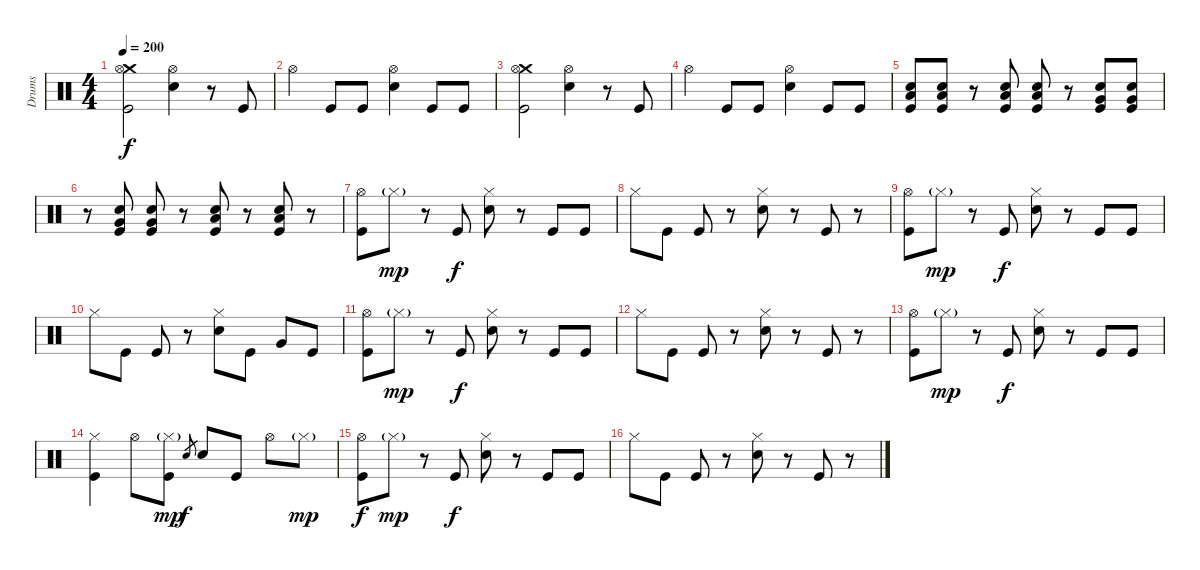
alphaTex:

\track ("Drums" "Drums") {instrument percussion}
\staff {score}
\articulation defaults
\ts (4 4)
\tempo 200
\clef neutral
\ks c
("Crash medium (hit)" "Hi-Hat (open)" "Kick (hit)").2{dy f} ("Hi-Hat (open)" "Electric Snare (hit)").4 r.8 "Kick (hit)".8 |
"Hi-Hat (open)".4 "Kick (hit)".8 "Kick (hit)".8 ("Hi-Hat (open)" "Electric Snare (hit)").4 "Kick (hit)".8 "Kick (hit)".8 |
("Crash medium (hit)" "Hi-Hat (open)" "Kick (hit)").2 ("Hi-Hat (open)" "Electric Snare (hit)").4 r.8 "Kick (hit)".8 |
"Hi-Hat (open)".4 "Kick (hit)".8 "Kick (hit)".8 ("Hi-Hat (open)" "Electric Snare (hit)").4 "Kick (hit)".8 "Kick (hit)".8 |
("Low Tom (hit)" "Electric Snare (hit)" "Kick (hit)").8 ("Low Tom (hit)" "Electric Snare (hit)" "Kick (hit)").8 r.8 ("Low Tom (hit)" "Electric Snare (hit)" "Kick (hit)").8 ("Low Tom (hit)" "Electric Snare (hit)" "Kick (hit)").8 r.8 ("Very Low Tom (hit)" "Electric Snare (hit)" "Kick (hit)").8 ("Very Low Tom (hit)" "Electric Snare (hit)" "Kick (hit)").8 |
r.8 ("Very Low Tom (hit)" "Electric Snare (hit)" "Kick (hit)").8 ("Very Low Tom (hit)" "Electric Snare (hit)" "Kick (hit)").8 r.8 ("Low Floor Tom (hit)" "Electric Snare (hit)" "Kick (hit)").8 r.8 ("Low Floor Tom (hit)" "Electric Snare (hit)" "Kick (hit)").8 r.8 |
("Hi-Hat (open)" "Kick (hit)").8 "Hi-Hat (closed)"{g}.8{dy mp} r.8 "Kick (hit)".8{dy f} ("Hi-Hat (closed)" "Electric Snare (hit)").8 r.8 "Kick (hit)".8 "Kick (hit)".8 |
"Hi-Hat (closed)".8 "Kick (hit)".8 "Kick (hit)".8 r.8 ("Hi-Hat (closed)" "Electric Snare (hit)").8 r.8 "Kick (hit)".8 r.8 |
("Hi-Hat (open)" "Kick (hit)").8 "Hi-Hat (closed)"{g}.8{dy mp} r.8 "Kick (hit)".8{dy f} ("Hi-Hat (closed)" "Electric Snare (hit)").8 r.8 "Kick (hit)".8 "Kick (hit)".8 |
"Hi-Hat (closed)".8 "Kick (hit)".8 "Kick (hit)".8 r.8 ("Hi-Hat (closed)" "Electric Snare (hit)").8 "Kick (hit)".8 "Very Low Tom (hit)".8 "Kick (hit)".8 |
("Hi-Hat (open)" "Kick (hit)").8 "Hi-Hat (closed)"{g}.8{dy mp} r.8 "Kick (hit)".8{dy f} ("Hi-Hat (closed)" "Electric Snare (hit)").8 r.8 "Kick (hit)".8 "Kick (hit)".8 |
"Hi-Hat (closed)".8 "Kick (hit)".8 "Kick (hit)".8 r.8 ("Hi-Hat (closed)" "Electric Snare (hit)").8 r.8 "Kick (hit)".8 r.8 |
("Hi-Hat (open)" "Kick (hit)").8 "Hi-Hat (closed)"{g}.8{dy mp} r.8 "Kick (hit)".8{dy f} ("Hi-Hat (closed)" "Electric Snare (hit)").8 r.8 "Kick (hit)".8 "Kick (hit)".8 |
("Hi-Hat (closed)" "Kick (hit)").4 "Hi-Hat (open)".8 ("Hi-Hat (closed)"{g} "Kick (hit)").8{dy mp} "Electric Snare (hit)".8{gr dy f} "Electric Snare (hit)".8 "Kick (hit)".8 "Hi-Hat (open)".8 "Hi-Hat (closed)"{g}.8{dy mp} |
("Hi-Hat (open)" "Kick (hit)").8{dy f} "Hi-Hat (closed)"{g}.8{dy mp} r.8 "Kick (hit)".8{dy f} ("Hi-Hat (closed)" "Electric Snare (hit)").8 r.8 "Kick (hit)".8 "Kick (hit)".8 |
"Hi-Hat (closed)".8 "Kick (hit)".8 "Kick (hit)".8 r.8 ("Hi-Hat (closed)" "Electric Snare (hit)").8 r.8 "Kick (hit)".8 r.8
